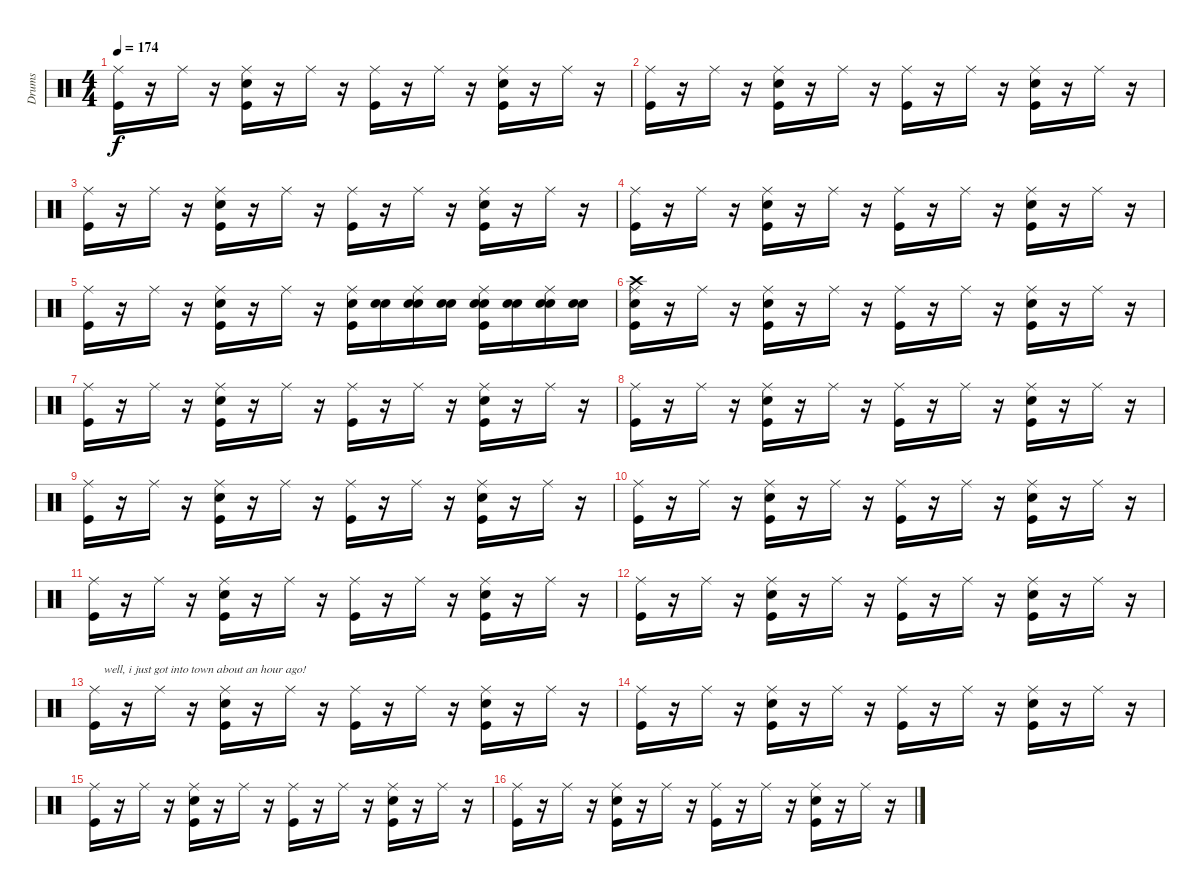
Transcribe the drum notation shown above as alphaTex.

\track ("Drums" "Drums") {instrument percussion}
\staff {score}
\articulation defaults
\ts (4 4)
\tempo 174
\clef neutral
\ks c
("Kick (hit)" "Ride (middle)").16{dy f} r.16 "Ride (middle)".16 r.16 ("Kick (hit)" "Snare (hit) 2" "Ride (middle)").16 r.16 "Ride (middle)".16 r.16 ("Kick (hit)" "Ride (middle)").16 r.16 "Ride (middle)".16 r.16 ("Kick (hit)" "Snare (hit) 2" "Ride (middle)").16 r.16 "Ride (middle)".16 r.16 |
("Kick (hit)" "Ride (middle)").16 r.16 "Ride (middle)".16 r.16 ("Kick (hit)" "Snare (hit) 2" "Ride (middle)").16 r.16 "Ride (middle)".16 r.16 ("Kick (hit)" "Ride (middle)").16 r.16 "Ride (middle)".16 r.16 ("Kick (hit)" "Snare (hit) 2" "Ride (middle)").16 r.16 "Ride (middle)".16 r.16 |
("Kick (hit)" "Ride (middle)").16 r.16 "Ride (middle)".16 r.16 ("Kick (hit)" "Snare (hit) 2" "Ride (middle)").16 r.16 "Ride (middle)".16 r.16 ("Kick (hit)" "Ride (middle)").16 r.16 "Ride (middle)".16 r.16 ("Kick (hit)" "Snare (hit) 2" "Ride (middle)").16 r.16 "Ride (middle)".16 r.16 |
("Kick (hit)" "Ride (middle)").16 r.16 "Ride (middle)".16 r.16 ("Kick (hit)" "Snare (hit) 2" "Ride (middle)").16 r.16 "Ride (middle)".16 r.16 ("Kick (hit)" "Ride (middle)").16 r.16 "Ride (middle)".16 r.16 ("Kick (hit)" "Snare (hit) 2" "Ride (middle)").16 r.16 "Ride (middle)".16 r.16 |
("Kick (hit)" "Ride (middle)").16 r.16 "Ride (middle)".16 r.16 ("Snare (hit) 2" "Kick (hit)" "Ride (middle)").16 r.16 "Ride (middle)".16 r.16 ("Snare (hit) 2" "Kick (hit)" "Ride (middle)").16 ("Snare (hit)" "Snare (hit) 2").16 ("Snare (hit)" "Snare (hit) 2" "Ride (middle)").16 ("Snare (hit)" "Snare (hit) 2").16 ("Snare (hit)" "Snare (hit) 2" "Kick (hit)" "Ride (middle)").16 ("Snare (hit)" "Snare (hit) 2").16 ("Snare (hit)" "Snare (hit) 2" "Ride (middle)").16 ("Snare (hit)" "Snare (hit) 2").16 |
("Snare (hit)" "Crash high (hit)" "Kick (hit)" "Ride (middle)").16 r.16 "Ride (middle)".16 r.16 ("Kick (hit)" "Snare (hit) 2" "Ride (middle)").16 r.16 "Ride (middle)".16 r.16 ("Kick (hit)" "Ride (middle)").16 r.16 "Ride (middle)".16 r.16 ("Kick (hit)" "Snare (hit) 2" "Ride (middle)").16 r.16 "Ride (middle)".16 r.16 |
("Kick (hit)" "Ride (middle)").16 r.16 "Ride (middle)".16 r.16 ("Kick (hit)" "Snare (hit) 2" "Ride (middle)").16 r.16 "Ride (middle)".16 r.16 ("Kick (hit)" "Ride (middle)").16 r.16 "Ride (middle)".16 r.16 ("Kick (hit)" "Snare (hit) 2" "Ride (middle)").16 r.16 "Ride (middle)".16 r.16 |
("Kick (hit)" "Ride (middle)").16 r.16 "Ride (middle)".16 r.16 ("Kick (hit)" "Snare (hit) 2" "Ride (middle)").16 r.16 "Ride (middle)".16 r.16 ("Kick (hit)" "Ride (middle)").16 r.16 "Ride (middle)".16 r.16 ("Kick (hit)" "Snare (hit) 2" "Ride (middle)").16 r.16 "Ride (middle)".16 r.16 |
("Kick (hit)" "Ride (middle)").16 r.16 "Ride (middle)".16 r.16 ("Kick (hit)" "Snare (hit) 2" "Ride (middle)").16 r.16 "Ride (middle)".16 r.16 ("Kick (hit)" "Ride (middle)").16 r.16 "Ride (middle)".16 r.16 ("Kick (hit)" "Snare (hit) 2" "Ride (middle)").16 r.16 "Ride (middle)".16 r.16 |
("Kick (hit)" "Ride (middle)").16 r.16 "Ride (middle)".16 r.16 ("Kick (hit)" "Snare (hit) 2" "Ride (middle)").16 r.16 "Ride (middle)".16 r.16 ("Kick (hit)" "Ride (middle)").16 r.16 "Ride (middle)".16 r.16 ("Kick (hit)" "Snare (hit) 2" "Ride (middle)").16 r.16 "Ride (middle)".16 r.16 |
("Kick (hit)" "Ride (middle)").16 r.16 "Ride (middle)".16 r.16 ("Kick (hit)" "Snare (hit) 2" "Ride (middle)").16 r.16 "Ride (middle)".16 r.16 ("Kick (hit)" "Ride (middle)").16 r.16 "Ride (middle)".16 r.16 ("Kick (hit)" "Snare (hit) 2" "Ride (middle)").16 r.16 "Ride (middle)".16 r.16 |
("Kick (hit)" "Ride (middle)").16 r.16 "Ride (middle)".16 r.16 ("Kick (hit)" "Snare (hit) 2" "Ride (middle)").16 r.16 "Ride (middle)".16 r.16 ("Kick (hit)" "Ride (middle)").16 r.16 "Ride (middle)".16 r.16 ("Kick (hit)" "Snare (hit) 2" "Ride (middle)").16 r.16 "Ride (middle)".16 r.16 |
("Kick (hit)" "Ride (middle)").16{txt "   well, i just got into town about an hour ago!"} r.16 "Ride (middle)".16 r.16 ("Kick (hit)" "Snare (hit) 2" "Ride (middle)").16 r.16 "Ride (middle)".16 r.16 ("Kick (hit)" "Ride (middle)").16 r.16 "Ride (middle)".16 r.16 ("Kick (hit)" "Snare (hit) 2" "Ride (middle)").16 r.16 "Ride (middle)".16 r.16 |
("Kick (hit)" "Ride (middle)").16 r.16 "Ride (middle)".16 r.16 ("Kick (hit)" "Snare (hit) 2" "Ride (middle)").16 r.16 "Ride (middle)".16 r.16 ("Kick (hit)" "Ride (middle)").16 r.16 "Ride (middle)".16 r.16 ("Kick (hit)" "Snare (hit) 2" "Ride (middle)").16 r.16 "Ride (middle)".16 r.16 |
("Kick (hit)" "Ride (middle)").16 r.16 "Ride (middle)".16 r.16 ("Kick (hit)" "Snare (hit) 2" "Ride (middle)").16 r.16 "Ride (middle)".16 r.16 ("Kick (hit)" "Ride (middle)").16 r.16 "Ride (middle)".16 r.16 ("Kick (hit)" "Snare (hit) 2" "Ride (middle)").16 r.16 "Ride (middle)".16 r.16 |
("Kick (hit)" "Ride (middle)").16 r.16 "Ride (middle)".16 r.16 ("Kick (hit)" "Snare (hit) 2" "Ride (middle)").16 r.16 "Ride (middle)".16 r.16 ("Kick (hit)" "Ride (middle)").16 r.16 "Ride (middle)".16 r.16 ("Kick (hit)" "Snare (hit) 2" "Ride (middle)").16 r.16 "Ride (middle)".16 r.16
